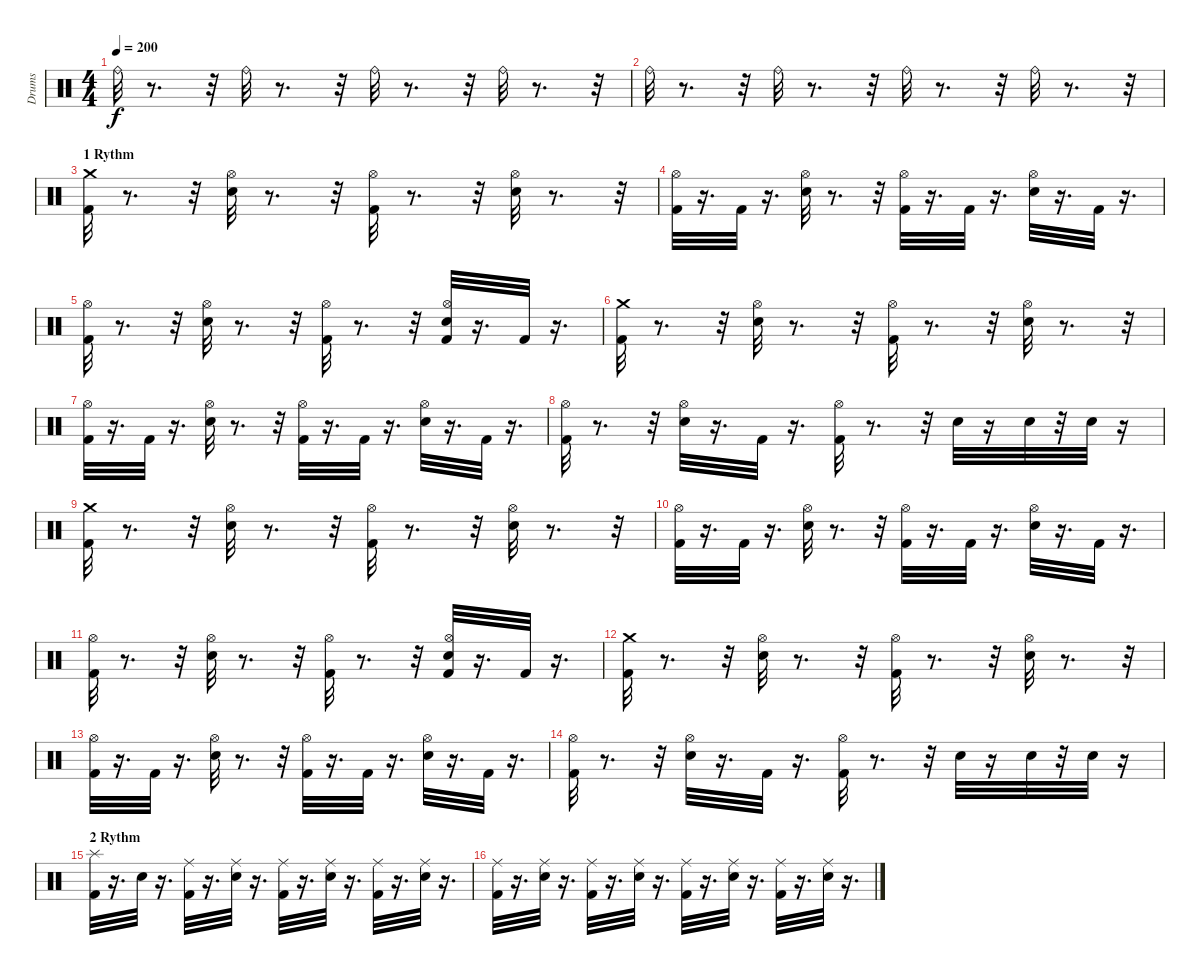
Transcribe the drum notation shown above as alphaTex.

\track ("Drums" "Drums") {instrument percussion}
\staff {score}
\articulation defaults
\ts (4 4)
\tempo 200
\clef neutral
\ks c "Ride (bell)".32{dy f}
r.8{d} r.32 "Ride (bell)".32 r.8{d} r.32 "Ride (bell)".32 r.8{d} r.32 "Ride (bell)".32 r.8{d} r.32 |
"Ride (bell)".32 r.8{d} r.32 "Ride (bell)".32 r.8{d} r.32 "Ride (bell)".32 r.8{d} r.32 "Ride (bell)".32 r.8{d} r.32 |
\section ("" "1 Rythm")
("Crash medium (hit)" "Kick (hit) 2").32 r.8{d} r.32 ("Hi-Hat (open)" "Electric Snare (hit)").32 r.8{d} r.32 ("Hi-Hat (open)" "Kick (hit) 2").32 r.8{d} r.32 ("Hi-Hat (open)" "Electric Snare (hit)").32 r.8{d} r.32 |
("Hi-Hat (open)" "Kick (hit) 2").32 r.16{d} "Kick (hit) 2".32 r.16{d} ("Hi-Hat (open)" "Electric Snare (hit)").32 r.8{d} r.32 ("Hi-Hat (open)" "Kick (hit) 2").32 r.16{d} "Kick (hit) 2".32 r.16{d} ("Hi-Hat (open)" "Electric Snare (hit)").32 r.16{d} "Kick (hit) 2".32 r.16{d} |
("Hi-Hat (open)" "Kick (hit) 2").32 r.8{d} r.32 ("Hi-Hat (open)" "Electric Snare (hit)").32 r.8{d} r.32 ("Hi-Hat (open)" "Kick (hit) 2").32 r.8{d} r.32 ("Kick (hit) 2" "Hi-Hat (open)" "Electric Snare (hit)").32 r.16{d} "Kick (hit) 2".32 r.16{d} |
("Crash medium (hit)" "Kick (hit) 2").32 r.8{d} r.32 ("Hi-Hat (open)" "Electric Snare (hit)").32 r.8{d} r.32 ("Hi-Hat (open)" "Kick (hit) 2").32 r.8{d} r.32 ("Hi-Hat (open)" "Electric Snare (hit)").32 r.8{d} r.32 |
("Hi-Hat (open)" "Kick (hit) 2").32 r.16{d} "Kick (hit) 2".32 r.16{d} ("Hi-Hat (open)" "Electric Snare (hit)").32 r.8{d} r.32 ("Hi-Hat (open)" "Kick (hit) 2").32 r.16{d} "Kick (hit) 2".32 r.16{d} ("Hi-Hat (open)" "Electric Snare (hit)").32 r.16{d} "Kick (hit) 2".32 r.16{d} |
("Hi-Hat (open)" "Kick (hit) 2").32 r.8{d} r.32 ("Hi-Hat (open)" "Electric Snare (hit)").32 r.16{d} "Kick (hit) 2".32 r.16{d} ("Hi-Hat (open)" "Kick (hit) 2").32 r.8{d} r.32 "Electric Snare (hit)".32 r.16 "Electric Snare (hit)".32 r.32 "Electric Snare (hit)".32 r.16 |
("Crash medium (hit)" "Kick (hit) 2").32 r.8{d} r.32 ("Hi-Hat (open)" "Electric Snare (hit)").32 r.8{d} r.32 ("Hi-Hat (open)" "Kick (hit) 2").32 r.8{d} r.32 ("Hi-Hat (open)" "Electric Snare (hit)").32 r.8{d} r.32 |
("Hi-Hat (open)" "Kick (hit) 2").32 r.16{d} "Kick (hit) 2".32 r.16{d} ("Hi-Hat (open)" "Electric Snare (hit)").32 r.8{d} r.32 ("Hi-Hat (open)" "Kick (hit) 2").32 r.16{d} "Kick (hit) 2".32 r.16{d} ("Hi-Hat (open)" "Electric Snare (hit)").32 r.16{d} "Kick (hit) 2".32 r.16{d} |
("Hi-Hat (open)" "Kick (hit) 2").32 r.8{d} r.32 ("Hi-Hat (open)" "Electric Snare (hit)").32 r.8{d} r.32 ("Hi-Hat (open)" "Kick (hit) 2").32 r.8{d} r.32 ("Kick (hit) 2" "Hi-Hat (open)" "Electric Snare (hit)").32 r.16{d} "Kick (hit) 2".32 r.16{d} |
("Crash medium (hit)" "Kick (hit) 2").32 r.8{d} r.32 ("Hi-Hat (open)" "Electric Snare (hit)").32 r.8{d} r.32 ("Hi-Hat (open)" "Kick (hit) 2").32 r.8{d} r.32 ("Hi-Hat (open)" "Electric Snare (hit)").32 r.8{d} r.32 |
("Hi-Hat (open)" "Kick (hit) 2").32 r.16{d} "Kick (hit) 2".32 r.16{d} ("Hi-Hat (open)" "Electric Snare (hit)").32 r.8{d} r.32 ("Hi-Hat (open)" "Kick (hit) 2").32 r.16{d} "Kick (hit) 2".32 r.16{d} ("Hi-Hat (open)" "Electric Snare (hit)").32 r.16{d} "Kick (hit) 2".32 r.16{d} |
("Hi-Hat (open)" "Kick (hit) 2").32 r.8{d} r.32 ("Hi-Hat (open)" "Electric Snare (hit)").32 r.16{d} "Kick (hit) 2".32 r.16{d} ("Hi-Hat (open)" "Kick (hit) 2").32 r.8{d} r.32 "Electric Snare (hit)".32 r.16 "Electric Snare (hit)".32 r.32 "Electric Snare (hit)".32 r.16 |
\section ("" "2 Rythm")
("Kick (hit) 2" "Splash (hit)").32 r.16{d} "Electric Snare (hit)".32 r.16{d} ("Kick (hit) 2" "Ride (middle)").32 r.16{d} ("Electric Snare (hit)" "Ride (middle)").32 r.16{d} ("Kick (hit) 2" "Ride (middle)").32 r.16{d} ("Electric Snare (hit)" "Ride (middle)").32 r.16{d} ("Kick (hit) 2" "Ride (middle)").32 r.16{d} ("Electric Snare (hit)" "Ride (middle)").32 r.16{d} |
("Kick (hit) 2" "Ride (middle)").32 r.16{d} ("Electric Snare (hit)" "Ride (middle)").32 r.16{d} ("Kick (hit) 2" "Ride (middle)").32 r.16{d} ("Electric Snare (hit)" "Ride (middle)").32 r.16{d} ("Kick (hit) 2" "Ride (middle)").32 r.16{d} ("Electric Snare (hit)" "Ride (middle)").32 r.16{d} ("Kick (hit) 2" "Ride (middle)").32 r.16{d} ("Electric Snare (hit)" "Ride (middle)").32 r.16{d}
